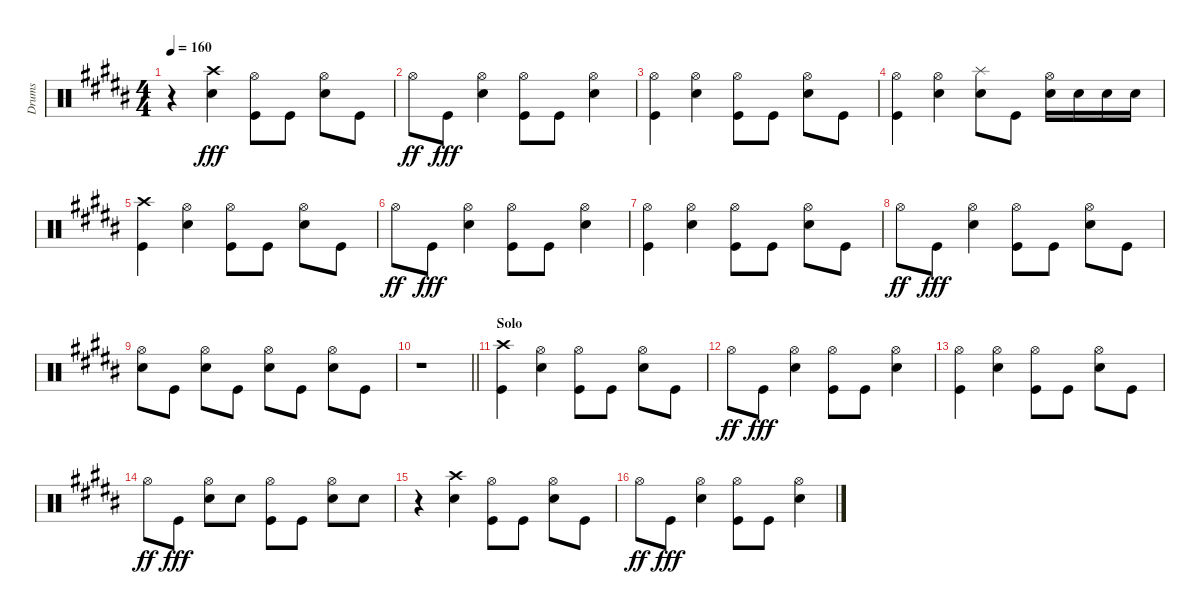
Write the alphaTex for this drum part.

\track ("Drums" "Drums") {instrument percussion}
\staff {score}
\articulation defaults
\ts (4 4)
\tempo 160
\clef neutral
\ks b
r.4{dy fff} ("Crash high (hit)" "Snare (hit) 2").4 ("Hi-Hat (open)" "Kick (hit)").8 "Kick (hit)".8 ("Hi-Hat (open)" "Snare (hit) 2").8 "Kick (hit)".8 |
"Hi-Hat (open)".8{dy ff} "Kick (hit)".8{dy fff} ("Hi-Hat (open)" "Snare (hit) 2").4 ("Hi-Hat (open)" "Kick (hit)").8 "Kick (hit)".8 ("Hi-Hat (open)" "Snare (hit) 2").4 |
("Hi-Hat (open)" "Kick (hit)").4 ("Hi-Hat (open)" "Snare (hit) 2").4 ("Hi-Hat (open)" "Kick (hit)").8 "Kick (hit)".8 ("Hi-Hat (open)" "Snare (hit) 2").8 "Kick (hit)".8 |
("Hi-Hat (open)" "Kick (hit)").4 ("Hi-Hat (open)" "Snare (hit) 2").4 ("Splash (hit)" "Snare (hit) 2").8 "Kick (hit)".8 ("Hi-Hat (open)" "Snare (hit) 2").16 "Snare (hit) 2".16 "Snare (hit) 2".16 "Snare (hit) 2".16 |
("Crash high (hit)" "Kick (hit)").4 ("Hi-Hat (open)" "Snare (hit) 2").4 ("Hi-Hat (open)" "Kick (hit)").8 "Kick (hit)".8 ("Hi-Hat (open)" "Snare (hit) 2").8 "Kick (hit)".8 |
"Hi-Hat (open)".8{dy ff} "Kick (hit)".8{dy fff} ("Hi-Hat (open)" "Snare (hit) 2").4 ("Hi-Hat (open)" "Kick (hit)").8 "Kick (hit)".8 ("Hi-Hat (open)" "Snare (hit) 2").4 |
("Hi-Hat (open)" "Kick (hit)").4 ("Hi-Hat (open)" "Snare (hit) 2").4 ("Hi-Hat (open)" "Kick (hit)").8 "Kick (hit)".8 ("Hi-Hat (open)" "Snare (hit) 2").8 "Kick (hit)".8 |
"Hi-Hat (open)".8{dy ff} "Kick (hit)".8{dy fff} ("Hi-Hat (open)" "Snare (hit) 2").4 ("Hi-Hat (open)" "Kick (hit)").8 "Kick (hit)".8 ("Hi-Hat (open)" "Snare (hit) 2").8 "Kick (hit)".8 |
("Hi-Hat (open)" "Snare (hit) 2").8 "Kick (hit)".8 ("Hi-Hat (open)" "Snare (hit) 2").8 "Kick (hit)".8 ("Hi-Hat (open)" "Snare (hit) 2").8 "Kick (hit)".8 ("Hi-Hat (open)" "Snare (hit) 2").8 "Kick (hit)".8 |
\barLineRight lightlight
r.1 |
\section ("" "Solo")
("Crash high (hit)" "Kick (hit)").4 ("Hi-Hat (open)" "Snare (hit) 2").4 ("Hi-Hat (open)" "Kick (hit)").8 "Kick (hit)".8 ("Hi-Hat (open)" "Snare (hit) 2").8 "Kick (hit)".8 |
"Hi-Hat (open)".8{dy ff} "Kick (hit)".8{dy fff} ("Hi-Hat (open)" "Snare (hit) 2").4 ("Hi-Hat (open)" "Kick (hit)").8 "Kick (hit)".8 ("Hi-Hat (open)" "Snare (hit) 2").4 |
("Hi-Hat (open)" "Kick (hit)").4 ("Hi-Hat (open)" "Snare (hit) 2").4 ("Hi-Hat (open)" "Kick (hit)").8 "Kick (hit)".8 ("Hi-Hat (open)" "Snare (hit) 2").8 "Kick (hit)".8 |
"Hi-Hat (open)".8{dy ff} "Kick (hit)".8{dy fff} ("Hi-Hat (open)" "Snare (hit) 2").8 "Snare (hit) 2".8 ("Hi-Hat (open)" "Kick (hit)").8 "Kick (hit)".8 ("Hi-Hat (open)" "Snare (hit) 2").8 "Snare (hit) 2".8 |
r.4 ("Crash high (hit)" "Snare (hit) 2").4 ("Hi-Hat (open)" "Kick (hit)").8 "Kick (hit)".8 ("Hi-Hat (open)" "Snare (hit) 2").8 "Kick (hit)".8 |
"Hi-Hat (open)".8{dy ff} "Kick (hit)".8{dy fff} ("Hi-Hat (open)" "Snare (hit) 2").4 ("Hi-Hat (open)" "Kick (hit)").8 "Kick (hit)".8 ("Hi-Hat (open)" "Snare (hit) 2").4
